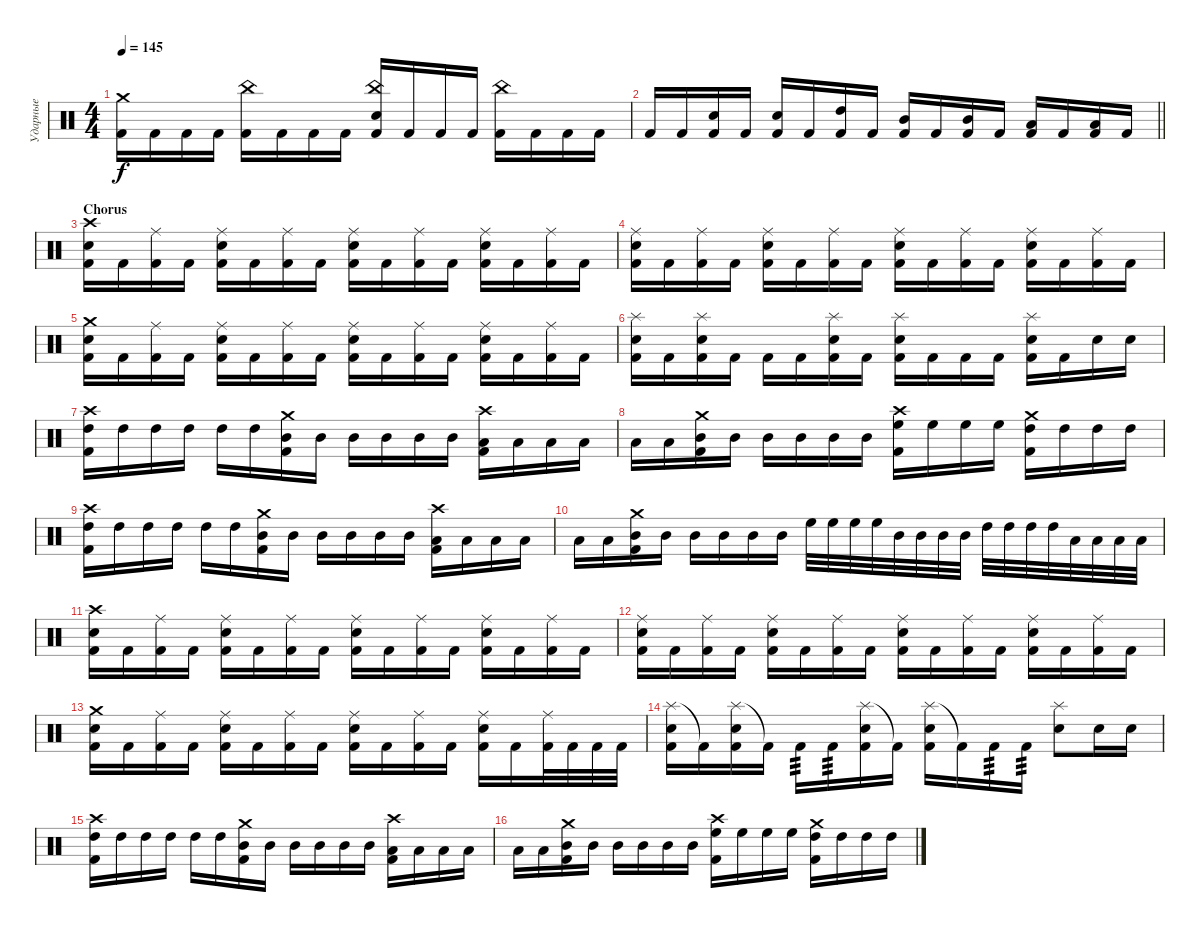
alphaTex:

\track ("Ударные" "Ударные") {instrument percussion}
\staff {score}
\articulation defaults
\ts (4 4)
\tempo 145
\clef neutral
\ks c
("Crash medium (hit)" "Kick (hit) 2").16{dy f} "Kick (hit) 2".16 "Kick (hit) 2".16 "Kick (hit) 2".16 ("China (hit)" "Kick (hit) 2").16 "Kick (hit) 2".16 "Kick (hit) 2".16 "Kick (hit) 2".16 ("China (hit)" "Electric Snare (hit)" "Kick (hit) 2").16 "Kick (hit) 2".16 "Kick (hit) 2".16 "Kick (hit) 2".16 ("China (hit)" "Kick (hit) 2").16 "Kick (hit) 2".16 "Kick (hit) 2".16 "Kick (hit) 2".16 |
\barLineRight lightlight "Kick (hit) 2".16 "Kick (hit) 2".16
("Electric Snare (hit)" "Kick (hit) 2").16 "Kick (hit) 2".16 ("Electric Snare (hit)" "Kick (hit) 2").16 "Kick (hit) 2".16 ("High Tom (hit)" "Kick (hit) 2").16 "Kick (hit) 2".16 ("Mid Tom (hit)" "Kick (hit) 2").16 "Kick (hit) 2".16 ("Mid Tom (hit)" "Kick (hit) 2").16 "Kick (hit) 2".16 ("Low Tom (hit)" "Kick (hit) 2").16 "Kick (hit) 2".16 ("Low Tom (hit)" "Kick (hit) 2").16 "Kick (hit) 2".16 |
\section ("" "Chorus")
("Crash high (hit)" "Electric Snare (hit)" "Kick (hit) 2").16 "Kick (hit) 2".16 ("Ride (middle)" "Kick (hit) 2").16 "Kick (hit) 2".16 ("Ride (middle)" "Electric Snare (hit)" "Kick (hit) 2").16 "Kick (hit) 2".16 ("Ride (middle)" "Kick (hit) 2").16 "Kick (hit) 2".16 ("Ride (middle)" "Electric Snare (hit)" "Kick (hit) 2").16 "Kick (hit) 2".16 ("Ride (middle)" "Kick (hit) 2").16 "Kick (hit) 2".16 ("Ride (middle)" "Electric Snare (hit)" "Kick (hit) 2").16 "Kick (hit) 2".16 ("Ride (middle)" "Kick (hit) 2").16 "Kick (hit) 2".16 |
("Ride (middle)" "Electric Snare (hit)" "Kick (hit) 2").16 "Kick (hit) 2".16 ("Ride (middle)" "Kick (hit) 2").16 "Kick (hit) 2".16 ("Ride (middle)" "Electric Snare (hit)" "Kick (hit) 2").16 "Kick (hit) 2".16 ("Ride (middle)" "Kick (hit) 2").16 "Kick (hit) 2".16 ("Ride (middle)" "Electric Snare (hit)" "Kick (hit) 2").16 "Kick (hit) 2".16 ("Ride (middle)" "Kick (hit) 2").16 "Kick (hit) 2".16 ("Ride (middle)" "Electric Snare (hit)" "Kick (hit) 2").16 "Kick (hit) 2".16 ("Ride (middle)" "Kick (hit) 2").16 "Kick (hit) 2".16 |
("Crash medium (hit)" "Electric Snare (hit)" "Kick (hit) 2").16 "Kick (hit) 2".16 ("Ride (middle)" "Kick (hit) 2").16 "Kick (hit) 2".16 ("Ride (middle)" "Electric Snare (hit)" "Kick (hit) 2").16 "Kick (hit) 2".16 ("Ride (middle)" "Kick (hit) 2").16 "Kick (hit) 2".16 ("Ride (middle)" "Electric Snare (hit)" "Kick (hit) 2").16 "Kick (hit) 2".16 ("Ride (middle)" "Kick (hit) 2").16 "Kick (hit) 2".16 ("Ride (middle)" "Electric Snare (hit)" "Kick (hit) 2").16 "Kick (hit) 2".16 ("Ride (middle)" "Kick (hit) 2").16 "Kick (hit) 2".16 |
("Splash (hit)" "Electric Snare (hit)" "Kick (hit) 2").16 "Kick (hit) 2".16 ("Splash (hit)" "Electric Snare (hit)" "Kick (hit) 2").16 "Kick (hit) 2".16 "Kick (hit) 2".16 "Kick (hit) 2".16 ("Splash (hit)" "Electric Snare (hit)" "Kick (hit) 2").16 "Kick (hit) 2".16 ("Splash (hit)" "Electric Snare (hit)" "Kick (hit) 2").16 "Kick (hit) 2".16 "Kick (hit) 2".16 "Kick (hit) 2".16 ("Splash (hit)" "Electric Snare (hit)" "Kick (hit) 2").16 "Kick (hit) 2".16 "Electric Snare (hit)".16 "Electric Snare (hit)".16 |
("Crash high (hit)" "High Tom (hit)" "Kick (hit) 2").16 "High Tom (hit)".16 "High Tom (hit)".16 "High Tom (hit)".16 "High Tom (hit)".16 "High Tom (hit)".16 ("Crash medium (hit)" "Mid Tom (hit)" "Kick (hit) 2").16 "Mid Tom (hit)".16 "Mid Tom (hit)".16 "Mid Tom (hit)".16 "Mid Tom (hit)".16 "Mid Tom (hit)".16 ("Crash high (hit)" "Low Tom (hit)" "Kick (hit) 2").16 "Low Tom (hit)".16 "Low Tom (hit)".16 "Low Tom (hit)".16 |
"Low Tom (hit)".16 "Low Tom (hit)".16 ("Crash medium (hit)" "Mid Tom (hit)" "Kick (hit) 2").16 "Mid Tom (hit)".16 "Mid Tom (hit)".16 "Mid Tom (hit)".16 "Mid Tom (hit)".16 "Mid Tom (hit)".16 ("Crash high (hit)" "High Floor Tom (hit)" "Kick (hit) 2").16 "High Floor Tom (hit)".16 "High Floor Tom (hit)".16 "High Floor Tom (hit)".16 ("Crash medium (hit)" "High Tom (hit)" "Kick (hit) 2").16 "High Tom (hit)".16 "High Tom (hit)".16 "High Tom (hit)".16 |
("Crash high (hit)" "High Tom (hit)" "Kick (hit) 2").16 "High Tom (hit)".16 "High Tom (hit)".16 "High Tom (hit)".16 "High Tom (hit)".16 "High Tom (hit)".16 ("Crash medium (hit)" "Mid Tom (hit)" "Kick (hit) 2").16 "Mid Tom (hit)".16 "Mid Tom (hit)".16 "Mid Tom (hit)".16 "Mid Tom (hit)".16 "Mid Tom (hit)".16 ("Crash high (hit)" "Low Tom (hit)" "Kick (hit) 2").16 "Low Tom (hit)".16 "Low Tom (hit)".16 "Low Tom (hit)".16 |
"Low Tom (hit)".16 "Low Tom (hit)".16 ("Crash medium (hit)" "Mid Tom (hit)" "Kick (hit) 2").16 "Mid Tom (hit)".16 "Mid Tom (hit)".16 "Mid Tom (hit)".16 "Mid Tom (hit)".16 "Mid Tom (hit)".16 "High Floor Tom (hit)".32 "High Floor Tom (hit)".32 "High Floor Tom (hit)".32 "High Floor Tom (hit)".32 "Mid Tom (hit)".32 "Mid Tom (hit)".32 "Mid Tom (hit)".32 "Mid Tom (hit)".32 "High Tom (hit)".32 "High Tom (hit)".32 "High Tom (hit)".32 "High Tom (hit)".32 "Low Tom (hit)".32 "Low Tom (hit)".32 "Low Tom (hit)".32 "Low Tom (hit)".32 |
("Crash high (hit)" "Electric Snare (hit)" "Kick (hit) 2").16 "Kick (hit) 2".16 ("Ride (middle)" "Kick (hit) 2").16 "Kick (hit) 2".16 ("Ride (middle)" "Electric Snare (hit)" "Kick (hit) 2").16 "Kick (hit) 2".16 ("Ride (middle)" "Kick (hit) 2").16 "Kick (hit) 2".16 ("Ride (middle)" "Electric Snare (hit)" "Kick (hit) 2").16 "Kick (hit) 2".16 ("Ride (middle)" "Kick (hit) 2").16 "Kick (hit) 2".16 ("Ride (middle)" "Electric Snare (hit)" "Kick (hit) 2").16 "Kick (hit) 2".16 ("Ride (middle)" "Kick (hit) 2").16 "Kick (hit) 2".16 |
("Ride (middle)" "Electric Snare (hit)" "Kick (hit) 2").16 "Kick (hit) 2".16 ("Ride (middle)" "Kick (hit) 2").16 "Kick (hit) 2".16 ("Ride (middle)" "Electric Snare (hit)" "Kick (hit) 2").16 "Kick (hit) 2".16 ("Ride (middle)" "Kick (hit) 2").16 "Kick (hit) 2".16 ("Ride (middle)" "Electric Snare (hit)" "Kick (hit) 2").16 "Kick (hit) 2".16 ("Ride (middle)" "Kick (hit) 2").16 "Kick (hit) 2".16 ("Ride (middle)" "Electric Snare (hit)" "Kick (hit) 2").16 "Kick (hit) 2".16 ("Ride (middle)" "Kick (hit) 2").16 "Kick (hit) 2".16 |
("Crash medium (hit)" "Electric Snare (hit)" "Kick (hit) 2").16 "Kick (hit) 2".16 ("Ride (middle)" "Kick (hit) 2").16 "Kick (hit) 2".16 ("Ride (middle)" "Electric Snare (hit)" "Kick (hit) 2").16 "Kick (hit) 2".16 ("Ride (middle)" "Kick (hit) 2").16 "Kick (hit) 2".16 ("Ride (middle)" "Electric Snare (hit)" "Kick (hit) 2").16 "Kick (hit) 2".16 ("Ride (middle)" "Kick (hit) 2").16 "Kick (hit) 2".16 ("Ride (middle)" "Electric Snare (hit)" "Kick (hit) 2").16 "Kick (hit) 2".16 ("Ride (middle)" "Kick (hit) 2").32 "Kick (hit) 2".32 "Kick (hit) 2".32 "Kick (hit) 2".32 |
("Splash (hit)" "Electric Snare (hit)" "Kick (hit) 2").16 "Kick (hit) 2"{t}.16 ("Splash (hit)" "Electric Snare (hit)" "Kick (hit) 2").16 "Kick (hit) 2"{t}.16 "Kick (hit) 2".16{tp 3} "Kick (hit) 2".16{tp 3} ("Splash (hit)" "Electric Snare (hit)" "Kick (hit) 2").16 "Kick (hit) 2"{t}.16 ("Splash (hit)" "Electric Snare (hit)" "Kick (hit) 2").16 "Kick (hit) 2"{t}.16 "Kick (hit) 2".16{tp 3} "Kick (hit) 2".16{tp 3} ("Splash (hit)" "Electric Snare (hit)").8 "Electric Snare (hit)".16 "Electric Snare (hit)".16 |
("Crash high (hit)" "High Tom (hit)" "Kick (hit) 2").16 "High Tom (hit)".16 "High Tom (hit)".16 "High Tom (hit)".16 "High Tom (hit)".16 "High Tom (hit)".16 ("Crash medium (hit)" "Mid Tom (hit)" "Kick (hit) 2").16 "Mid Tom (hit)".16 "Mid Tom (hit)".16 "Mid Tom (hit)".16 "Mid Tom (hit)".16 "Mid Tom (hit)".16 ("Crash high (hit)" "Low Tom (hit)" "Kick (hit) 2").16 "Low Tom (hit)".16 "Low Tom (hit)".16 "Low Tom (hit)".16 |
"Low Tom (hit)".16 "Low Tom (hit)".16 ("Crash medium (hit)" "Mid Tom (hit)" "Kick (hit) 2").16 "Mid Tom (hit)".16 "Mid Tom (hit)".16 "Mid Tom (hit)".16 "Mid Tom (hit)".16 "Mid Tom (hit)".16 ("Crash high (hit)" "High Floor Tom (hit)" "Kick (hit) 2").16 "High Floor Tom (hit)".16 "High Floor Tom (hit)".16 "High Floor Tom (hit)".16 ("Crash medium (hit)" "High Tom (hit)" "Kick (hit) 2").16 "High Tom (hit)".16 "High Tom (hit)".16 "High Tom (hit)".16
